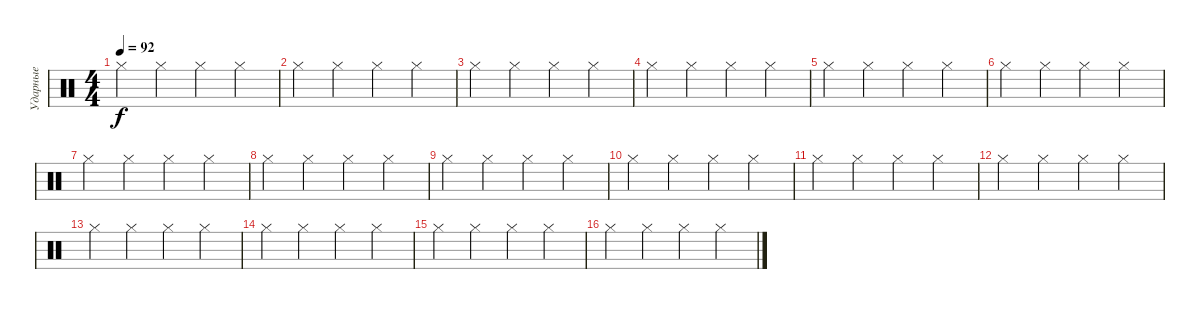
\track ("Ударные" "Ударные") {instrument percussion}
\staff {score}
\articulation defaults
\ts (4 4)
\tempo 92
\clef neutral
\ks c "Hi-Hat (closed)".4{dy f} "Hi-Hat (closed)".4 "Hi-Hat (closed)".4 "Hi-Hat (closed)".4
|
"Hi-Hat (closed)".4 "Hi-Hat (closed)".4 "Hi-Hat (closed)".4 "Hi-Hat (closed)".4 |
"Hi-Hat (closed)".4 "Hi-Hat (closed)".4 "Hi-Hat (closed)".4 "Hi-Hat (closed)".4 |
"Hi-Hat (closed)".4 "Hi-Hat (closed)".4 "Hi-Hat (closed)".4 "Hi-Hat (closed)".4 |
"Hi-Hat (closed)".4 "Hi-Hat (closed)".4 "Hi-Hat (closed)".4 "Hi-Hat (closed)".4 |
"Hi-Hat (closed)".4 "Hi-Hat (closed)".4 "Hi-Hat (closed)".4 "Hi-Hat (closed)".4 |
"Hi-Hat (closed)".4 "Hi-Hat (closed)".4 "Hi-Hat (closed)".4 "Hi-Hat (closed)".4 |
"Hi-Hat (closed)".4 "Hi-Hat (closed)".4 "Hi-Hat (closed)".4 "Hi-Hat (closed)".4 |
"Hi-Hat (closed)".4 "Hi-Hat (closed)".4 "Hi-Hat (closed)".4 "Hi-Hat (closed)".4 |
"Hi-Hat (closed)".4 "Hi-Hat (closed)".4 "Hi-Hat (closed)".4 "Hi-Hat (closed)".4 |
"Hi-Hat (closed)".4 "Hi-Hat (closed)".4 "Hi-Hat (closed)".4 "Hi-Hat (closed)".4 |
"Hi-Hat (closed)".4 "Hi-Hat (closed)".4 "Hi-Hat (closed)".4 "Hi-Hat (closed)".4 |
"Hi-Hat (closed)".4 "Hi-Hat (closed)".4 "Hi-Hat (closed)".4 "Hi-Hat (closed)".4 |
"Hi-Hat (closed)".4 "Hi-Hat (closed)".4 "Hi-Hat (closed)".4 "Hi-Hat (closed)".4 |
"Hi-Hat (closed)".4 "Hi-Hat (closed)".4 "Hi-Hat (closed)".4 "Hi-Hat (closed)".4 |
"Hi-Hat (closed)".4 "Hi-Hat (closed)".4 "Hi-Hat (closed)".4 "Hi-Hat (closed)".4
